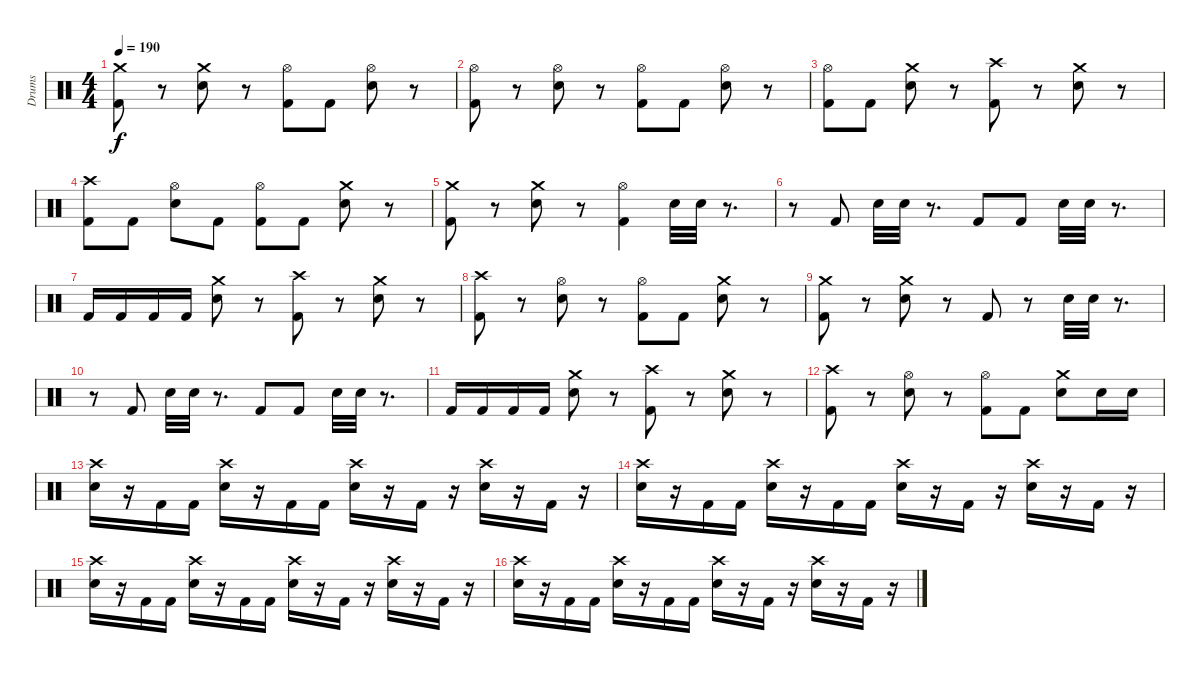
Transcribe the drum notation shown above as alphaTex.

\track ("Drums" "Drums") {instrument percussion}
\staff {score}
\articulation defaults
\ts (4 4)
\tempo 190
\clef neutral
\ks c
("Kick (hit) 2" "Crash medium (hit)").8{dy f} r.8 ("Electric Snare (hit)" "Crash medium (hit)").8 r.8 ("Hi-Hat (open)" "Kick (hit) 2").8 "Kick (hit) 2".8 ("Hi-Hat (open)" "Electric Snare (hit)").8 r.8 |
("Hi-Hat (open)" "Kick (hit) 2").8 r.8 ("Hi-Hat (open)" "Electric Snare (hit)").8 r.8 ("Hi-Hat (open)" "Kick (hit) 2").8 "Kick (hit) 2".8 ("Hi-Hat (open)" "Electric Snare (hit)").8 r.8 |
("Kick (hit) 2" "Hi-Hat (open)").8 "Kick (hit) 2".8 ("Electric Snare (hit)" "Crash medium (hit)").8 r.8 ("Kick (hit) 2" "Crash high (hit)").8 r.8 ("Electric Snare (hit)" "Crash medium (hit)").8 r.8 |
("Kick (hit) 2" "Crash high (hit)").8 "Kick (hit) 2".8 ("Electric Snare (hit)" "Hi-Hat (open)").8 "Kick (hit) 2".8 ("Kick (hit) 2" "Hi-Hat (open)").8 "Kick (hit) 2".8 ("Electric Snare (hit)" "Crash medium (hit)").8 r.8 |
("Kick (hit) 2" "Crash medium (hit)").8 r.8 ("Electric Snare (hit)" "Crash medium (hit)").8 r.8 ("Hi-Hat (open)" "Kick (hit) 2").4 "Electric Snare (hit)".32 "Electric Snare (hit)".32 r.8{d} |
r.8 "Kick (hit) 2".8 "Electric Snare (hit)".32 "Electric Snare (hit)".32 r.8{d} "Kick (hit) 2".8 "Kick (hit) 2".8 "Electric Snare (hit)".32 "Electric Snare (hit)".32 r.8{d} |
"Kick (hit) 2".16 "Kick (hit) 2".16 "Kick (hit) 2".16 "Kick (hit) 2".16 ("Electric Snare (hit)" "Crash medium (hit)").8 r.8 ("Kick (hit) 2" "Crash high (hit)").8 r.8 ("Electric Snare (hit)" "Crash medium (hit)").8 r.8 |
("Kick (hit) 2" "Crash high (hit)").8 r.8 ("Electric Snare (hit)" "Hi-Hat (open)").8 r.8 ("Kick (hit) 2" "Hi-Hat (open)").8 "Kick (hit) 2".8 ("Electric Snare (hit)" "Crash medium (hit)").8 r.8 |
("Kick (hit) 2" "Crash medium (hit)").8 r.8 ("Electric Snare (hit)" "Crash medium (hit)").8 r.8 "Kick (hit) 2".8 r.8 "Electric Snare (hit)".32 "Electric Snare (hit)".32 r.8{d} |
r.8 "Kick (hit) 2".8 "Electric Snare (hit)".32 "Electric Snare (hit)".32 r.8{d} "Kick (hit) 2".8 "Kick (hit) 2".8 "Electric Snare (hit)".32 "Electric Snare (hit)".32 r.8{d} |
"Kick (hit) 2".16 "Kick (hit) 2".16 "Kick (hit) 2".16 "Kick (hit) 2".16 ("Electric Snare (hit)" "Crash medium (hit)").8 r.8 ("Kick (hit) 2" "Crash high (hit)").8 r.8 ("Electric Snare (hit)" "Crash medium (hit)").8 r.8 |
("Kick (hit) 2" "Crash high (hit)").8 r.8 ("Electric Snare (hit)" "Hi-Hat (open)").8 r.8 ("Kick (hit) 2" "Hi-Hat (open)").8 "Kick (hit) 2".8 ("Electric Snare (hit)" "Crash medium (hit)").8 "Electric Snare (hit)".16 "Electric Snare (hit)".16 |
("Electric Snare (hit)" "Crash high (hit)").16 r.16 "Kick (hit) 2".16 "Kick (hit) 2".16 ("Electric Snare (hit)" "Crash high (hit)").16 r.16 "Kick (hit) 2".16 "Kick (hit) 2".16 ("Electric Snare (hit)" "Crash high (hit)").16 r.16 "Kick (hit) 2".16 r.16 ("Electric Snare (hit)" "Crash high (hit)").16 r.16 "Kick (hit) 2".16 r.16 |
("Electric Snare (hit)" "Crash high (hit)").16 r.16 "Kick (hit) 2".16 "Kick (hit) 2".16 ("Electric Snare (hit)" "Crash high (hit)").16 r.16 "Kick (hit) 2".16 "Kick (hit) 2".16 ("Electric Snare (hit)" "Crash high (hit)").16 r.16 "Kick (hit) 2".16 r.16 ("Electric Snare (hit)" "Crash high (hit)").16 r.16 "Kick (hit) 2".16 r.16 |
("Electric Snare (hit)" "Crash high (hit)").16 r.16 "Kick (hit) 2".16 "Kick (hit) 2".16 ("Electric Snare (hit)" "Crash high (hit)").16 r.16 "Kick (hit) 2".16 "Kick (hit) 2".16 ("Electric Snare (hit)" "Crash high (hit)").16 r.16 "Kick (hit) 2".16 r.16 ("Electric Snare (hit)" "Crash high (hit)").16 r.16 "Kick (hit) 2".16 r.16 |
("Electric Snare (hit)" "Crash high (hit)").16 r.16 "Kick (hit) 2".16 "Kick (hit) 2".16 ("Electric Snare (hit)" "Crash high (hit)").16 r.16 "Kick (hit) 2".16 "Kick (hit) 2".16 ("Electric Snare (hit)" "Crash high (hit)").16 r.16 "Kick (hit) 2".16 r.16 ("Electric Snare (hit)" "Crash high (hit)").16 r.16 "Kick (hit) 2".16 r.16
